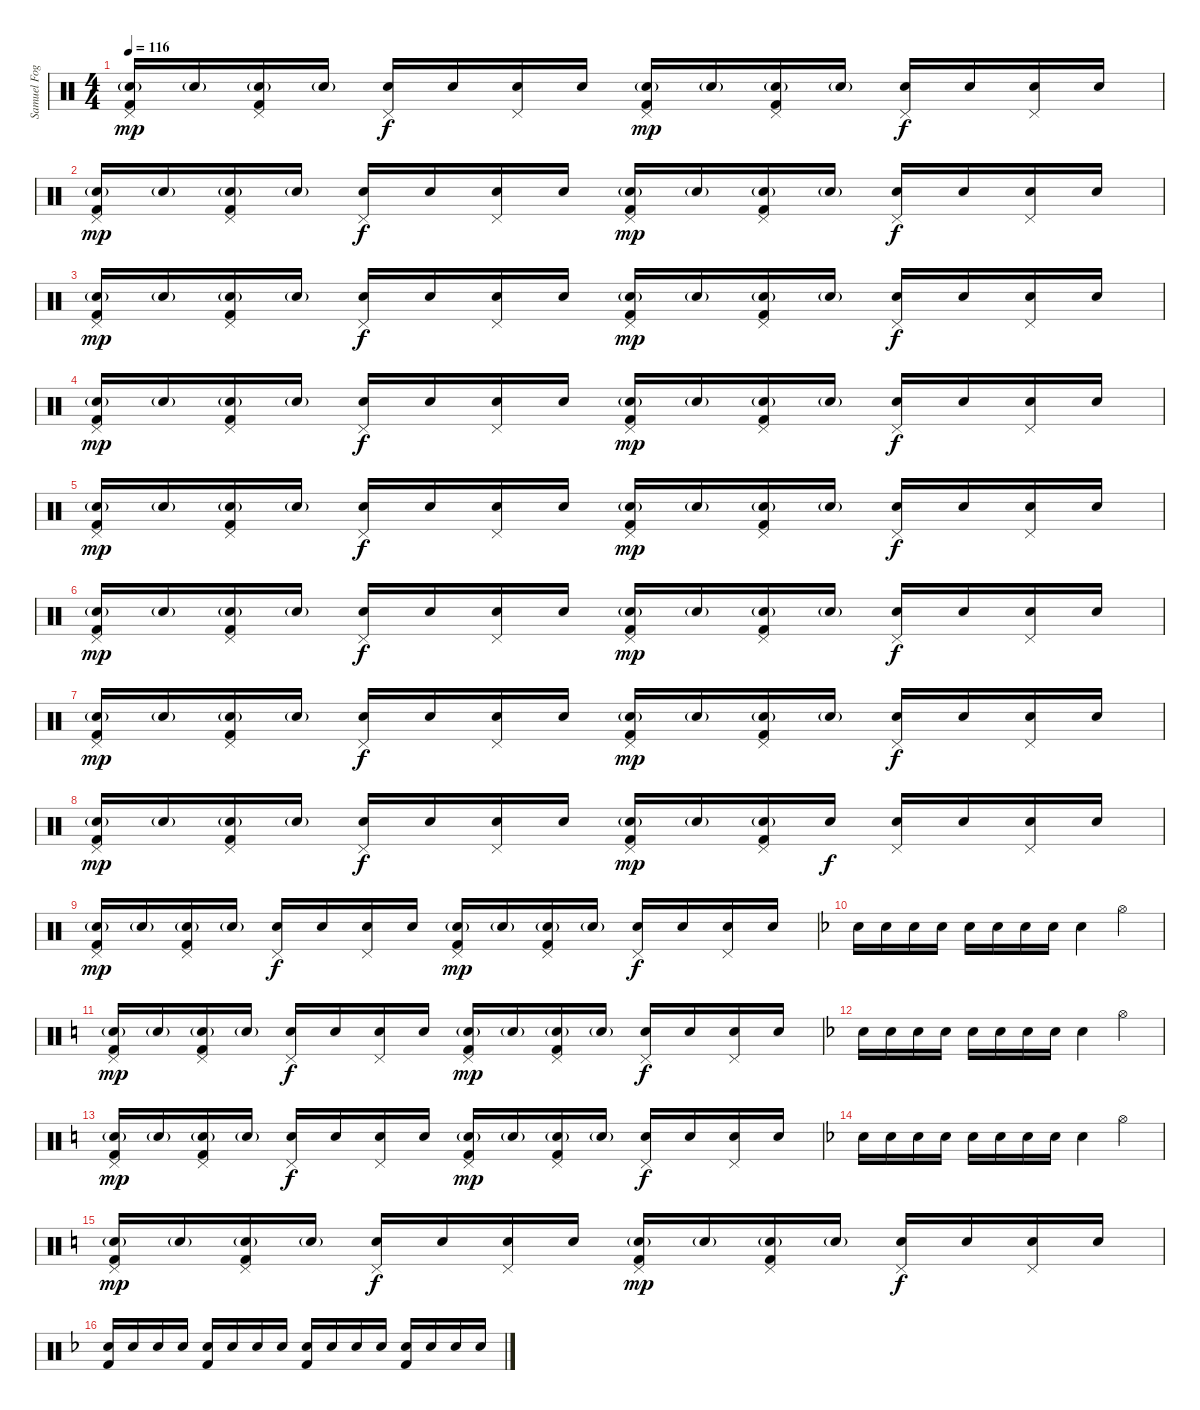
\track ("Samuel Fogarino" "Samuel Fog") {instrument percussion}
\staff {score}
\articulation defaults
\ts (4 4)
\tempo 116
\clef neutral
\ks c
("Pedal Hi-Hat (hit)" "Snare (hit) 2"{g} "Kick (hit) 2").16{dy mp} "Snare (hit) 2"{g}.16 ("Pedal Hi-Hat (hit)" "Snare (hit) 2"{g} "Kick (hit) 2").16 "Snare (hit) 2"{g}.16 ("Pedal Hi-Hat (hit)" "Snare (hit) 2").16{dy f} "Snare (hit) 2".16 ("Pedal Hi-Hat (hit)" "Snare (hit) 2").16 "Snare (hit) 2".16 ("Pedal Hi-Hat (hit)" "Snare (hit) 2"{g} "Kick (hit) 2").16{dy mp} "Snare (hit) 2"{g}.16 ("Pedal Hi-Hat (hit)" "Snare (hit) 2"{g} "Kick (hit) 2").16 "Snare (hit) 2"{g}.16 ("Pedal Hi-Hat (hit)" "Snare (hit) 2").16{dy f} "Snare (hit) 2".16 ("Pedal Hi-Hat (hit)" "Snare (hit) 2").16 "Snare (hit) 2".16 |
("Pedal Hi-Hat (hit)" "Snare (hit) 2"{g} "Kick (hit) 2").16{dy mp} "Snare (hit) 2"{g}.16 ("Pedal Hi-Hat (hit)" "Snare (hit) 2"{g} "Kick (hit) 2").16 "Snare (hit) 2"{g}.16 ("Pedal Hi-Hat (hit)" "Snare (hit) 2").16{dy f} "Snare (hit) 2".16 ("Pedal Hi-Hat (hit)" "Snare (hit) 2").16 "Snare (hit) 2".16 ("Pedal Hi-Hat (hit)" "Snare (hit) 2"{g} "Kick (hit) 2").16{dy mp} "Snare (hit) 2"{g}.16 ("Pedal Hi-Hat (hit)" "Snare (hit) 2"{g} "Kick (hit) 2").16 "Snare (hit) 2"{g}.16 ("Pedal Hi-Hat (hit)" "Snare (hit) 2").16{dy f} "Snare (hit) 2".16 ("Pedal Hi-Hat (hit)" "Snare (hit) 2").16 "Snare (hit) 2".16 |
("Pedal Hi-Hat (hit)" "Snare (hit) 2"{g} "Kick (hit) 2").16{dy mp} "Snare (hit) 2"{g}.16 ("Pedal Hi-Hat (hit)" "Snare (hit) 2"{g} "Kick (hit) 2").16 "Snare (hit) 2"{g}.16 ("Pedal Hi-Hat (hit)" "Snare (hit) 2").16{dy f} "Snare (hit) 2".16 ("Pedal Hi-Hat (hit)" "Snare (hit) 2").16 "Snare (hit) 2".16 ("Pedal Hi-Hat (hit)" "Snare (hit) 2"{g} "Kick (hit) 2").16{dy mp} "Snare (hit) 2"{g}.16 ("Pedal Hi-Hat (hit)" "Snare (hit) 2"{g} "Kick (hit) 2").16 "Snare (hit) 2"{g}.16 ("Pedal Hi-Hat (hit)" "Snare (hit) 2").16{dy f} "Snare (hit) 2".16 ("Pedal Hi-Hat (hit)" "Snare (hit) 2").16 "Snare (hit) 2".16 |
("Pedal Hi-Hat (hit)" "Snare (hit) 2"{g} "Kick (hit) 2").16{dy mp} "Snare (hit) 2"{g}.16 ("Pedal Hi-Hat (hit)" "Snare (hit) 2"{g} "Kick (hit) 2").16 "Snare (hit) 2"{g}.16 ("Pedal Hi-Hat (hit)" "Snare (hit) 2").16{dy f} "Snare (hit) 2".16 ("Pedal Hi-Hat (hit)" "Snare (hit) 2").16 "Snare (hit) 2".16 ("Pedal Hi-Hat (hit)" "Snare (hit) 2"{g} "Kick (hit) 2").16{dy mp} "Snare (hit) 2"{g}.16 ("Pedal Hi-Hat (hit)" "Snare (hit) 2"{g} "Kick (hit) 2").16 "Snare (hit) 2"{g}.16 ("Pedal Hi-Hat (hit)" "Snare (hit) 2").16{dy f} "Snare (hit) 2".16 ("Pedal Hi-Hat (hit)" "Snare (hit) 2").16 "Snare (hit) 2".16 |
("Pedal Hi-Hat (hit)" "Snare (hit) 2"{g} "Kick (hit) 2").16{dy mp} "Snare (hit) 2"{g}.16 ("Pedal Hi-Hat (hit)" "Snare (hit) 2"{g} "Kick (hit) 2").16 "Snare (hit) 2"{g}.16 ("Pedal Hi-Hat (hit)" "Snare (hit) 2").16{dy f} "Snare (hit) 2".16 ("Pedal Hi-Hat (hit)" "Snare (hit) 2").16 "Snare (hit) 2".16 ("Pedal Hi-Hat (hit)" "Snare (hit) 2"{g} "Kick (hit) 2").16{dy mp} "Snare (hit) 2"{g}.16 ("Pedal Hi-Hat (hit)" "Snare (hit) 2"{g} "Kick (hit) 2").16 "Snare (hit) 2"{g}.16 ("Pedal Hi-Hat (hit)" "Snare (hit) 2").16{dy f} "Snare (hit) 2".16 ("Pedal Hi-Hat (hit)" "Snare (hit) 2").16 "Snare (hit) 2".16 |
("Pedal Hi-Hat (hit)" "Snare (hit) 2"{g} "Kick (hit) 2").16{dy mp} "Snare (hit) 2"{g}.16 ("Pedal Hi-Hat (hit)" "Snare (hit) 2"{g} "Kick (hit) 2").16 "Snare (hit) 2"{g}.16 ("Pedal Hi-Hat (hit)" "Snare (hit) 2").16{dy f} "Snare (hit) 2".16 ("Pedal Hi-Hat (hit)" "Snare (hit) 2").16 "Snare (hit) 2".16 ("Pedal Hi-Hat (hit)" "Snare (hit) 2"{g} "Kick (hit) 2").16{dy mp} "Snare (hit) 2"{g}.16 ("Pedal Hi-Hat (hit)" "Snare (hit) 2"{g} "Kick (hit) 2").16 "Snare (hit) 2"{g}.16 ("Pedal Hi-Hat (hit)" "Snare (hit) 2").16{dy f} "Snare (hit) 2".16 ("Pedal Hi-Hat (hit)" "Snare (hit) 2").16 "Snare (hit) 2".16 |
("Pedal Hi-Hat (hit)" "Snare (hit) 2"{g} "Kick (hit) 2").16{dy mp} "Snare (hit) 2"{g}.16 ("Pedal Hi-Hat (hit)" "Snare (hit) 2"{g} "Kick (hit) 2").16 "Snare (hit) 2"{g}.16 ("Pedal Hi-Hat (hit)" "Snare (hit) 2").16{dy f} "Snare (hit) 2".16 ("Pedal Hi-Hat (hit)" "Snare (hit) 2").16 "Snare (hit) 2".16 ("Pedal Hi-Hat (hit)" "Snare (hit) 2"{g} "Kick (hit) 2").16{dy mp} "Snare (hit) 2"{g}.16 ("Pedal Hi-Hat (hit)" "Snare (hit) 2"{g} "Kick (hit) 2").16 "Snare (hit) 2"{g}.16 ("Pedal Hi-Hat (hit)" "Snare (hit) 2").16{dy f} "Snare (hit) 2".16 ("Pedal Hi-Hat (hit)" "Snare (hit) 2").16 "Snare (hit) 2".16 |
("Pedal Hi-Hat (hit)" "Snare (hit) 2"{g} "Kick (hit) 2").16{dy mp} "Snare (hit) 2"{g}.16 ("Pedal Hi-Hat (hit)" "Snare (hit) 2"{g} "Kick (hit) 2").16 "Snare (hit) 2"{g}.16 ("Pedal Hi-Hat (hit)" "Snare (hit) 2").16{dy f} "Snare (hit) 2".16 ("Pedal Hi-Hat (hit)" "Snare (hit) 2").16 "Snare (hit) 2".16 ("Pedal Hi-Hat (hit)" "Snare (hit) 2"{g} "Kick (hit) 2").16{dy mp} "Snare (hit) 2"{g}.16 ("Pedal Hi-Hat (hit)" "Snare (hit) 2"{g} "Kick (hit) 2").16 "Snare (hit) 2".16{dy f} ("Pedal Hi-Hat (hit)" "Snare (hit) 2").16 "Snare (hit) 2".16 ("Pedal Hi-Hat (hit)" "Snare (hit) 2").16 "Snare (hit) 2".16 |
("Pedal Hi-Hat (hit)" "Snare (hit) 2"{g} "Kick (hit) 2").16{dy mp} "Snare (hit) 2"{g}.16 ("Pedal Hi-Hat (hit)" "Snare (hit) 2"{g} "Kick (hit) 2").16 "Snare (hit) 2"{g}.16 ("Pedal Hi-Hat (hit)" "Snare (hit) 2").16{dy f} "Snare (hit) 2".16 ("Pedal Hi-Hat (hit)" "Snare (hit) 2").16 "Snare (hit) 2".16 ("Pedal Hi-Hat (hit)" "Snare (hit) 2"{g} "Kick (hit) 2").16{dy mp} "Snare (hit) 2"{g}.16 ("Pedal Hi-Hat (hit)" "Snare (hit) 2"{g} "Kick (hit) 2").16 "Snare (hit) 2"{g}.16 ("Pedal Hi-Hat (hit)" "Snare (hit) 2").16{dy f} "Snare (hit) 2".16 ("Pedal Hi-Hat (hit)" "Snare (hit) 2").16 "Snare (hit) 2".16 |
\ks f "Snare (hit) 2".16 "Snare (hit) 2".16 "Snare (hit) 2".16 "Snare (hit) 2".16 "Snare (hit) 2".16 "Snare (hit) 2".16 "Snare (hit) 2".16 "Snare (hit) 2".16 "Snare (hit) 2".4 "Hi-Hat (open)".4
|
\ks c
("Pedal Hi-Hat (hit)" "Snare (hit) 2"{g} "Kick (hit) 2").16{dy mp} "Snare (hit) 2"{g}.16 ("Pedal Hi-Hat (hit)" "Snare (hit) 2"{g} "Kick (hit) 2").16 "Snare (hit) 2"{g}.16 ("Pedal Hi-Hat (hit)" "Snare (hit) 2").16{dy f} "Snare (hit) 2".16 ("Pedal Hi-Hat (hit)" "Snare (hit) 2").16 "Snare (hit) 2".16 ("Pedal Hi-Hat (hit)" "Snare (hit) 2"{g} "Kick (hit) 2").16{dy mp} "Snare (hit) 2"{g}.16 ("Pedal Hi-Hat (hit)" "Snare (hit) 2"{g} "Kick (hit) 2").16 "Snare (hit) 2"{g}.16 ("Pedal Hi-Hat (hit)" "Snare (hit) 2").16{dy f} "Snare (hit) 2".16 ("Pedal Hi-Hat (hit)" "Snare (hit) 2").16 "Snare (hit) 2".16 |
\ks f "Snare (hit) 2".16 "Snare (hit) 2".16 "Snare (hit) 2".16 "Snare (hit) 2".16 "Snare (hit) 2".16 "Snare (hit) 2".16 "Snare (hit) 2".16 "Snare (hit) 2".16 "Snare (hit) 2".4 "Hi-Hat (open)".4
|
\ks c
("Pedal Hi-Hat (hit)" "Snare (hit) 2"{g} "Kick (hit) 2").16{dy mp} "Snare (hit) 2"{g}.16 ("Pedal Hi-Hat (hit)" "Snare (hit) 2"{g} "Kick (hit) 2").16 "Snare (hit) 2"{g}.16 ("Pedal Hi-Hat (hit)" "Snare (hit) 2").16{dy f} "Snare (hit) 2".16 ("Pedal Hi-Hat (hit)" "Snare (hit) 2").16 "Snare (hit) 2".16 ("Pedal Hi-Hat (hit)" "Snare (hit) 2"{g} "Kick (hit) 2").16{dy mp} "Snare (hit) 2"{g}.16 ("Pedal Hi-Hat (hit)" "Snare (hit) 2"{g} "Kick (hit) 2").16 "Snare (hit) 2"{g}.16 ("Pedal Hi-Hat (hit)" "Snare (hit) 2").16{dy f} "Snare (hit) 2".16 ("Pedal Hi-Hat (hit)" "Snare (hit) 2").16 "Snare (hit) 2".16 |
\ks f "Snare (hit) 2".16 "Snare (hit) 2".16 "Snare (hit) 2".16 "Snare (hit) 2".16 "Snare (hit) 2".16 "Snare (hit) 2".16 "Snare (hit) 2".16 "Snare (hit) 2".16 "Snare (hit) 2".4 "Hi-Hat (open)".4
|
\ks c
("Pedal Hi-Hat (hit)" "Snare (hit) 2"{g} "Kick (hit) 2").16{dy mp} "Snare (hit) 2"{g}.16 ("Pedal Hi-Hat (hit)" "Snare (hit) 2"{g} "Kick (hit) 2").16 "Snare (hit) 2"{g}.16 ("Pedal Hi-Hat (hit)" "Snare (hit) 2").16{dy f} "Snare (hit) 2".16 ("Pedal Hi-Hat (hit)" "Snare (hit) 2").16 "Snare (hit) 2".16 ("Pedal Hi-Hat (hit)" "Snare (hit) 2"{g} "Kick (hit) 2").16{dy mp} "Snare (hit) 2"{g}.16 ("Pedal Hi-Hat (hit)" "Snare (hit) 2"{g} "Kick (hit) 2").16 "Snare (hit) 2"{g}.16 ("Pedal Hi-Hat (hit)" "Snare (hit) 2").16{dy f} "Snare (hit) 2".16 ("Pedal Hi-Hat (hit)" "Snare (hit) 2").16 "Snare (hit) 2".16 |
\ks f
("Kick (hit) 2" "Snare (hit) 2").16{volume 6} "Snare (hit) 2".16 "Snare (hit) 2".16 "Snare (hit) 2".16 ("Kick (hit) 2" "Snare (hit) 2").16 "Snare (hit) 2".16 "Snare (hit) 2".16 "Snare (hit) 2".16 ("Kick (hit) 2" "Snare (hit) 2").16 "Snare (hit) 2".16 "Snare (hit) 2".16 "Snare (hit) 2".16 ("Kick (hit) 2" "Snare (hit) 2").16 "Snare (hit) 2".16 "Snare (hit) 2".16 "Snare (hit) 2".16
